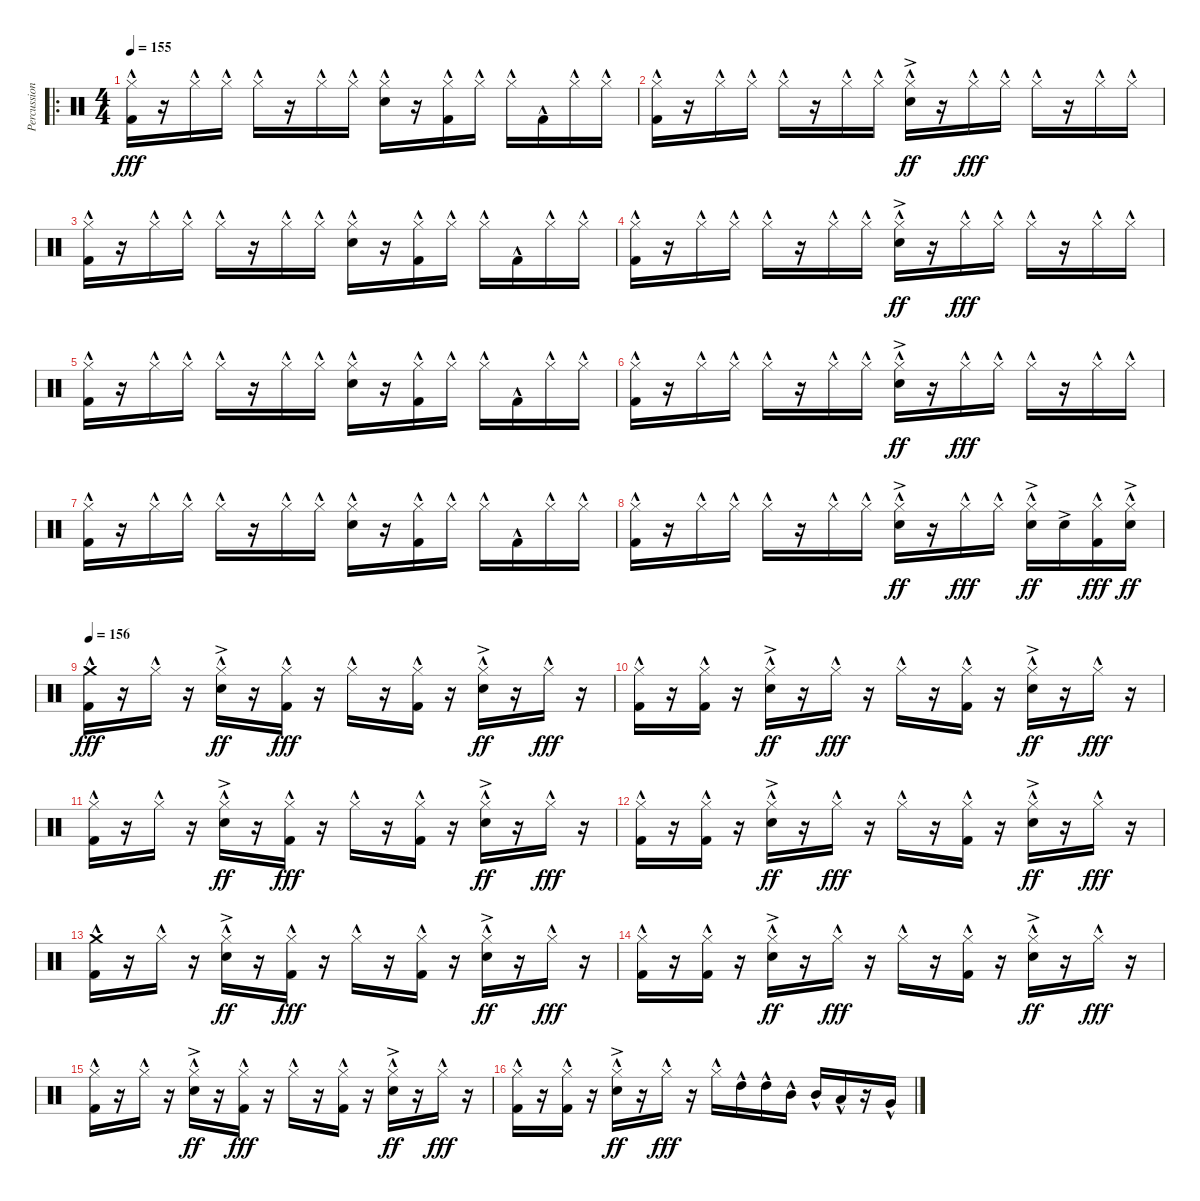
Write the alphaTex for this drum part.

\track ("Percussion" "Percussion") {instrument percussion bank 255}
\staff {score}
\articulation defaults
\ro
\ts (4 4)
\tempo 155
\clef neutral
\ks c
("Hi-Hat (closed)"{hac} "Kick (hit) 2"{hac}).16{dy fff} r.16 "Hi-Hat (closed)"{hac}.16 "Hi-Hat (closed)"{hac}.16 "Hi-Hat (closed)"{hac}.16 r.16 "Hi-Hat (closed)"{hac}.16 "Hi-Hat (closed)"{hac}.16 ("Hi-Hat (closed)"{hac} "Snare (hit) 2").16 r.16 ("Hi-Hat (closed)"{hac} "Kick (hit) 2"{hac}).16 "Hi-Hat (closed)"{hac}.16 "Hi-Hat (closed)"{hac}.16 "Kick (hit) 2"{hac}.16 "Hi-Hat (closed)"{hac}.16 "Hi-Hat (closed)"{hac}.16 |
("Hi-Hat (closed)"{hac} "Kick (hit) 2"{hac}).16 r.16 "Hi-Hat (closed)"{hac}.16 "Hi-Hat (closed)"{hac}.16 "Hi-Hat (closed)"{hac}.16 r.16 "Hi-Hat (closed)"{hac}.16 "Hi-Hat (closed)"{hac}.16 ("Hi-Hat (closed)"{hac} "Snare (hit) 2"{ac}).16{dy ff} r.16 "Hi-Hat (closed)"{hac}.16{dy fff} "Hi-Hat (closed)"{hac}.16 "Hi-Hat (closed)"{hac}.16 r.16 "Hi-Hat (closed)"{hac}.16 "Hi-Hat (closed)"{hac}.16 |
("Hi-Hat (closed)"{hac} "Kick (hit) 2"{hac}).16 r.16 "Hi-Hat (closed)"{hac}.16 "Hi-Hat (closed)"{hac}.16 "Hi-Hat (closed)"{hac}.16 r.16 "Hi-Hat (closed)"{hac}.16 "Hi-Hat (closed)"{hac}.16 ("Hi-Hat (closed)"{hac} "Snare (hit) 2").16 r.16 ("Hi-Hat (closed)"{hac} "Kick (hit) 2"{hac}).16 "Hi-Hat (closed)"{hac}.16 "Hi-Hat (closed)"{hac}.16 "Kick (hit) 2"{hac}.16 "Hi-Hat (closed)"{hac}.16 "Hi-Hat (closed)"{hac}.16 |
("Hi-Hat (closed)"{hac} "Kick (hit) 2"{hac}).16 r.16 "Hi-Hat (closed)"{hac}.16 "Hi-Hat (closed)"{hac}.16 "Hi-Hat (closed)"{hac}.16 r.16 "Hi-Hat (closed)"{hac}.16 "Hi-Hat (closed)"{hac}.16 ("Hi-Hat (closed)"{hac} "Snare (hit) 2"{ac}).16{dy ff} r.16 "Hi-Hat (closed)"{hac}.16{dy fff} "Hi-Hat (closed)"{hac}.16 "Hi-Hat (closed)"{hac}.16 r.16 "Hi-Hat (closed)"{hac}.16 "Hi-Hat (closed)"{hac}.16 |
("Hi-Hat (closed)"{hac} "Kick (hit) 2"{hac}).16 r.16 "Hi-Hat (closed)"{hac}.16 "Hi-Hat (closed)"{hac}.16 "Hi-Hat (closed)"{hac}.16 r.16 "Hi-Hat (closed)"{hac}.16 "Hi-Hat (closed)"{hac}.16 ("Hi-Hat (closed)"{hac} "Snare (hit) 2").16 r.16 ("Hi-Hat (closed)"{hac} "Kick (hit) 2"{hac}).16 "Hi-Hat (closed)"{hac}.16 "Hi-Hat (closed)"{hac}.16 "Kick (hit) 2"{hac}.16 "Hi-Hat (closed)"{hac}.16 "Hi-Hat (closed)"{hac}.16 |
("Hi-Hat (closed)"{hac} "Kick (hit) 2"{hac}).16 r.16 "Hi-Hat (closed)"{hac}.16 "Hi-Hat (closed)"{hac}.16 "Hi-Hat (closed)"{hac}.16 r.16 "Hi-Hat (closed)"{hac}.16 "Hi-Hat (closed)"{hac}.16 ("Hi-Hat (closed)"{hac} "Snare (hit) 2"{ac}).16{dy ff} r.16 "Hi-Hat (closed)"{hac}.16{dy fff} "Hi-Hat (closed)"{hac}.16 "Hi-Hat (closed)"{hac}.16 r.16 "Hi-Hat (closed)"{hac}.16 "Hi-Hat (closed)"{hac}.16 |
("Hi-Hat (closed)"{hac} "Kick (hit) 2"{hac}).16 r.16 "Hi-Hat (closed)"{hac}.16 "Hi-Hat (closed)"{hac}.16 "Hi-Hat (closed)"{hac}.16 r.16 "Hi-Hat (closed)"{hac}.16 "Hi-Hat (closed)"{hac}.16 ("Hi-Hat (closed)"{hac} "Snare (hit) 2").16 r.16 ("Hi-Hat (closed)"{hac} "Kick (hit) 2"{hac}).16 "Hi-Hat (closed)"{hac}.16 "Hi-Hat (closed)"{hac}.16 "Kick (hit) 2"{hac}.16 "Hi-Hat (closed)"{hac}.16 "Hi-Hat (closed)"{hac}.16 |
("Hi-Hat (closed)"{hac} "Kick (hit) 2"{hac}).16 r.16 "Hi-Hat (closed)"{hac}.16 "Hi-Hat (closed)"{hac}.16 "Hi-Hat (closed)"{hac}.16 r.16 "Hi-Hat (closed)"{hac}.16 "Hi-Hat (closed)"{hac}.16 ("Hi-Hat (closed)"{hac} "Snare (hit) 2"{ac}).16{dy ff} r.16 "Hi-Hat (closed)"{hac}.16{dy fff} "Hi-Hat (closed)"{hac}.16 ("Hi-Hat (closed)"{hac} "Snare (hit) 2"{ac}).16{dy ff} "Snare (hit) 2"{ac}.16 ("Hi-Hat (closed)"{hac} "Kick (hit) 2"{hac}).16{dy fff} ("Hi-Hat (closed)"{hac} "Snare (hit) 2"{ac}).16{dy ff} |
\tempo 156
("Crash medium (hit)"{hac} "Kick (hit) 2"{hac}).16{dy fff} r.16 "Hi-Hat (closed)"{hac}.16 r.16 ("Hi-Hat (closed)"{hac} "Snare (hit) 2"{ac}).16{dy ff} r.16 ("Hi-Hat (closed)"{hac} "Kick (hit) 2"{hac}).16{dy fff} r.16 "Hi-Hat (closed)"{hac}.16 r.16 ("Hi-Hat (closed)"{hac} "Kick (hit) 2"{hac}).16 r.16 ("Hi-Hat (closed)"{hac} "Snare (hit) 2"{ac}).16{dy ff} r.16 "Hi-Hat (closed)"{hac}.16{dy fff} r.16 |
("Hi-Hat (closed)"{hac} "Kick (hit) 2"{hac}).16 r.16 ("Hi-Hat (closed)"{hac} "Kick (hit) 2"{hac}).16 r.16 ("Hi-Hat (closed)"{hac} "Snare (hit) 2"{ac}).16{dy ff} r.16 "Hi-Hat (closed)"{hac}.16{dy fff} r.16 "Hi-Hat (closed)"{hac}.16 r.16 ("Hi-Hat (closed)"{hac} "Kick (hit) 2"{hac}).16 r.16 ("Hi-Hat (closed)"{hac} "Snare (hit) 2"{ac}).16{dy ff} r.16 "Hi-Hat (closed)"{hac}.16{dy fff} r.16 |
("Hi-Hat (closed)"{hac} "Kick (hit) 2"{hac}).16 r.16 "Hi-Hat (closed)"{hac}.16 r.16 ("Hi-Hat (closed)"{hac} "Snare (hit) 2"{ac}).16{dy ff} r.16 ("Hi-Hat (closed)"{hac} "Kick (hit) 2"{hac}).16{dy fff} r.16 "Hi-Hat (closed)"{hac}.16 r.16 ("Hi-Hat (closed)"{hac} "Kick (hit) 2"{hac}).16 r.16 ("Hi-Hat (closed)"{hac} "Snare (hit) 2"{ac}).16{dy ff} r.16 "Hi-Hat (closed)"{hac}.16{dy fff} r.16 |
("Hi-Hat (closed)"{hac} "Kick (hit) 2"{hac}).16 r.16 ("Hi-Hat (closed)"{hac} "Kick (hit) 2"{hac}).16 r.16 ("Hi-Hat (closed)"{hac} "Snare (hit) 2"{ac}).16{dy ff} r.16 "Hi-Hat (closed)"{hac}.16{dy fff} r.16 "Hi-Hat (closed)"{hac}.16 r.16 ("Hi-Hat (closed)"{hac} "Kick (hit) 2"{hac}).16 r.16 ("Hi-Hat (closed)"{hac} "Snare (hit) 2"{ac}).16{dy ff} r.16 "Hi-Hat (closed)"{hac}.16{dy fff} r.16 |
("Crash medium (hit)"{hac} "Kick (hit) 2"{hac}).16 r.16 "Hi-Hat (closed)"{hac}.16 r.16 ("Hi-Hat (closed)"{hac} "Snare (hit) 2"{ac}).16{dy ff} r.16 ("Hi-Hat (closed)"{hac} "Kick (hit) 2"{hac}).16{dy fff} r.16 "Hi-Hat (closed)"{hac}.16 r.16 ("Hi-Hat (closed)"{hac} "Kick (hit) 2"{hac}).16 r.16 ("Hi-Hat (closed)"{hac} "Snare (hit) 2"{ac}).16{dy ff} r.16 "Hi-Hat (closed)"{hac}.16{dy fff} r.16 |
("Hi-Hat (closed)"{hac} "Kick (hit) 2"{hac}).16 r.16 ("Hi-Hat (closed)"{hac} "Kick (hit) 2"{hac}).16 r.16 ("Hi-Hat (closed)"{hac} "Snare (hit) 2"{ac}).16{dy ff} r.16 "Hi-Hat (closed)"{hac}.16{dy fff} r.16 "Hi-Hat (closed)"{hac}.16 r.16 ("Hi-Hat (closed)"{hac} "Kick (hit) 2"{hac}).16 r.16 ("Hi-Hat (closed)"{hac} "Snare (hit) 2"{ac}).16{dy ff} r.16 "Hi-Hat (closed)"{hac}.16{dy fff} r.16 |
("Hi-Hat (closed)"{hac} "Kick (hit) 2"{hac}).16 r.16 "Hi-Hat (closed)"{hac}.16 r.16 ("Hi-Hat (closed)"{hac} "Snare (hit) 2"{ac}).16{dy ff} r.16 ("Hi-Hat (closed)"{hac} "Kick (hit) 2"{hac}).16{dy fff} r.16 "Hi-Hat (closed)"{hac}.16 r.16 ("Hi-Hat (closed)"{hac} "Kick (hit) 2"{hac}).16 r.16 ("Hi-Hat (closed)"{hac} "Snare (hit) 2"{ac}).16{dy ff} r.16 "Hi-Hat (closed)"{hac}.16{dy fff} r.16 |
("Hi-Hat (closed)"{hac} "Kick (hit) 2"{hac}).16 r.16 ("Hi-Hat (closed)"{hac} "Kick (hit) 2"{hac}).16 r.16 ("Hi-Hat (closed)"{hac} "Snare (hit) 2"{ac}).16{dy ff} r.16 "Hi-Hat (closed)"{hac}.16{dy fff} r.16 "Hi-Hat (closed)"{hac}.16 "High Tom (hit)"{hac}.16 "High Tom (hit)"{hac}.16 "Mid Tom (hit)"{hac}.16 "Mid Tom (hit)"{hac}.16 "Low Tom (hit)"{hac}.16 r.16 "Very Low Tom (hit)"{hac}.16
